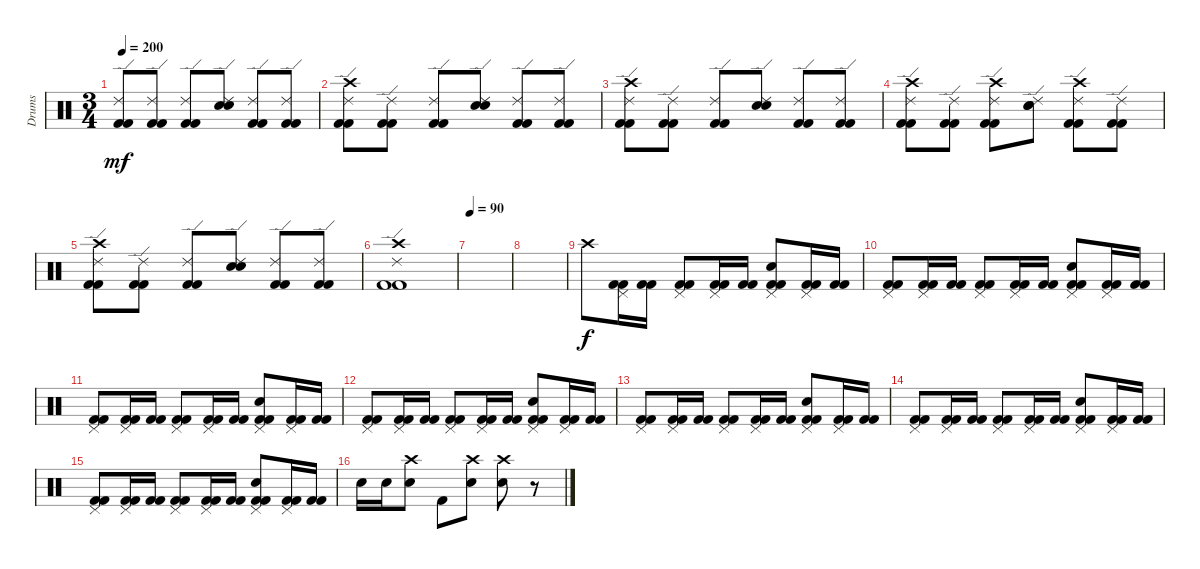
\track ("Drums" "Drums") {instrument percussion bank 41}
\staff
\articulation defaults
\ts (3 4)
\tempo 200
\clef neutral
\ks c
("Kick (hit) 2" "Kick (hit) 2" "Ride (edge) 2").8{dy mf} ("Kick (hit) 2" "Kick (hit) 2" "Ride (edge) 2").8 ("Kick (hit) 2" "Kick (hit) 2" "Ride (edge) 2").8 ("Snare (hit) 2" "Electric Snare (hit)" "Ride (edge) 2").8 ("Kick (hit) 2" "Kick (hit) 2" "Ride (edge) 2").8 ("Kick (hit) 2" "Kick (hit) 2" "Ride (edge) 2").8 |
("Kick (hit) 2" "Kick (hit) 2" "Ride (edge) 2" "Crash high (hit)").8 ("Kick (hit) 2" "Kick (hit) 2" "Ride (edge) 2").8 ("Kick (hit) 2" "Kick (hit) 2" "Ride (edge) 2").8 ("Snare (hit) 2" "Electric Snare (hit)" "Ride (edge) 2").8 ("Kick (hit) 2" "Kick (hit) 2" "Ride (edge) 2").8 ("Kick (hit) 2" "Kick (hit) 2" "Ride (edge) 2").8 |
("Kick (hit) 2" "Kick (hit) 2" "Ride (edge) 2" "Crash high (hit)").8 ("Kick (hit) 2" "Kick (hit) 2" "Ride (edge) 2").8 ("Kick (hit) 2" "Kick (hit) 2" "Ride (edge) 2").8 ("Snare (hit) 2" "Electric Snare (hit)" "Ride (edge) 2").8 ("Kick (hit) 2" "Kick (hit) 2" "Ride (edge) 2").8 ("Kick (hit) 2" "Kick (hit) 2" "Ride (edge) 2").8 |
("Kick (hit) 2" "Kick (hit) 2" "Ride (edge) 2" "Crash high (hit)").8 ("Kick (hit) 2" "Kick (hit) 2" "Ride (edge) 2").8 ("Kick (hit) 2" "Kick (hit) 2" "Ride (edge) 2" "Crash high (hit)").8 ("Snare (hit) 2" "Electric Snare (hit)" "Ride (edge) 2").8 ("Kick (hit) 2" "Kick (hit) 2" "Ride (edge) 2" "Crash high (hit)").8 ("Kick (hit) 2" "Kick (hit) 2" "Ride (edge) 2").8 |
("Kick (hit) 2" "Kick (hit) 2" "Ride (edge) 2" "Crash high (hit)").8 ("Kick (hit) 2" "Kick (hit) 2" "Ride (edge) 2").8 ("Kick (hit) 2" "Kick (hit) 2" "Ride (edge) 2").8 ("Snare (hit) 2" "Electric Snare (hit)" "Ride (edge) 2").8 ("Kick (hit) 2" "Kick (hit) 2" "Ride (edge) 2").8 ("Kick (hit) 2" "Kick (hit) 2" "Ride (edge) 2").8 |
("Kick (hit) 2" "Kick (hit) 2" "Ride (edge) 2" "Crash high (hit)").1 |
\tempo 90
|
|
"Crash high (hit)".8{dy f} ("Kick (hit) 2" "Kick (hit) 2" "Pedal Hi-Hat (hit)").16 ("Kick (hit) 2" "Kick (hit) 2").16 ("Kick (hit) 2" "Kick (hit) 2" "Pedal Hi-Hat (hit)").8 ("Kick (hit) 2" "Kick (hit) 2" "Pedal Hi-Hat (hit)").16 ("Kick (hit) 2" "Kick (hit) 2").16 ("Kick (hit) 2" "Kick (hit) 2" "Snare (hit) 2" "Pedal Hi-Hat (hit)").8 ("Kick (hit) 2" "Kick (hit) 2" "Pedal Hi-Hat (hit)").16 ("Kick (hit) 2" "Kick (hit) 2").16 |
("Kick (hit) 2" "Kick (hit) 2" "Pedal Hi-Hat (hit)").8 ("Kick (hit) 2" "Kick (hit) 2" "Pedal Hi-Hat (hit)").16 ("Kick (hit) 2" "Kick (hit) 2").16 ("Kick (hit) 2" "Kick (hit) 2" "Pedal Hi-Hat (hit)").8 ("Kick (hit) 2" "Kick (hit) 2" "Pedal Hi-Hat (hit)").16 ("Kick (hit) 2" "Kick (hit) 2").16 ("Kick (hit) 2" "Kick (hit) 2" "Snare (hit) 2" "Pedal Hi-Hat (hit)").8 ("Kick (hit) 2" "Kick (hit) 2" "Pedal Hi-Hat (hit)").16 ("Kick (hit) 2" "Kick (hit) 2").16 |
("Kick (hit) 2" "Kick (hit) 2" "Pedal Hi-Hat (hit)").8 ("Kick (hit) 2" "Kick (hit) 2" "Pedal Hi-Hat (hit)").16 ("Kick (hit) 2" "Kick (hit) 2").16 ("Kick (hit) 2" "Kick (hit) 2" "Pedal Hi-Hat (hit)").8 ("Kick (hit) 2" "Kick (hit) 2" "Pedal Hi-Hat (hit)").16 ("Kick (hit) 2" "Kick (hit) 2").16 ("Kick (hit) 2" "Kick (hit) 2" "Snare (hit) 2" "Pedal Hi-Hat (hit)").8 ("Kick (hit) 2" "Kick (hit) 2" "Pedal Hi-Hat (hit)").16 ("Kick (hit) 2" "Kick (hit) 2").16 |
("Kick (hit) 2" "Kick (hit) 2" "Pedal Hi-Hat (hit)").8 ("Kick (hit) 2" "Kick (hit) 2" "Pedal Hi-Hat (hit)").16 ("Kick (hit) 2" "Kick (hit) 2").16 ("Kick (hit) 2" "Kick (hit) 2" "Pedal Hi-Hat (hit)").8 ("Kick (hit) 2" "Kick (hit) 2" "Pedal Hi-Hat (hit)").16 ("Kick (hit) 2" "Kick (hit) 2").16 ("Kick (hit) 2" "Kick (hit) 2" "Snare (hit) 2" "Pedal Hi-Hat (hit)").8 ("Kick (hit) 2" "Kick (hit) 2" "Pedal Hi-Hat (hit)").16 ("Kick (hit) 2" "Kick (hit) 2").16 |
("Kick (hit) 2" "Kick (hit) 2" "Pedal Hi-Hat (hit)").8 ("Kick (hit) 2" "Kick (hit) 2" "Pedal Hi-Hat (hit)").16 ("Kick (hit) 2" "Kick (hit) 2").16 ("Kick (hit) 2" "Kick (hit) 2" "Pedal Hi-Hat (hit)").8 ("Kick (hit) 2" "Kick (hit) 2" "Pedal Hi-Hat (hit)").16 ("Kick (hit) 2" "Kick (hit) 2").16 ("Kick (hit) 2" "Kick (hit) 2" "Snare (hit) 2" "Pedal Hi-Hat (hit)").8 ("Kick (hit) 2" "Kick (hit) 2" "Pedal Hi-Hat (hit)").16 ("Kick (hit) 2" "Kick (hit) 2").16 |
("Kick (hit) 2" "Kick (hit) 2" "Pedal Hi-Hat (hit)").8 ("Kick (hit) 2" "Kick (hit) 2" "Pedal Hi-Hat (hit)").16 ("Kick (hit) 2" "Kick (hit) 2").16 ("Kick (hit) 2" "Kick (hit) 2" "Pedal Hi-Hat (hit)").8 ("Kick (hit) 2" "Kick (hit) 2" "Pedal Hi-Hat (hit)").16 ("Kick (hit) 2" "Kick (hit) 2").16 ("Kick (hit) 2" "Kick (hit) 2" "Snare (hit) 2" "Pedal Hi-Hat (hit)").8 ("Kick (hit) 2" "Kick (hit) 2" "Pedal Hi-Hat (hit)").16 ("Kick (hit) 2" "Kick (hit) 2").16 |
("Kick (hit) 2" "Kick (hit) 2" "Pedal Hi-Hat (hit)").8 ("Kick (hit) 2" "Kick (hit) 2" "Pedal Hi-Hat (hit)").16 ("Kick (hit) 2" "Kick (hit) 2").16 ("Kick (hit) 2" "Kick (hit) 2" "Pedal Hi-Hat (hit)").8 ("Kick (hit) 2" "Kick (hit) 2" "Pedal Hi-Hat (hit)").16 ("Kick (hit) 2" "Kick (hit) 2").16 ("Kick (hit) 2" "Kick (hit) 2" "Snare (hit) 2" "Pedal Hi-Hat (hit)").8 ("Kick (hit) 2" "Kick (hit) 2" "Pedal Hi-Hat (hit)").16 ("Kick (hit) 2" "Kick (hit) 2").16 |
"Snare (hit) 2".16 "Snare (hit) 2".16 ("Snare (hit) 2" "Crash high (hit)").8 "Kick (hit) 2".8 ("Snare (hit) 2" "Crash high (hit)").8 ("Snare (hit) 2" "Crash high (hit)").8 r.8
